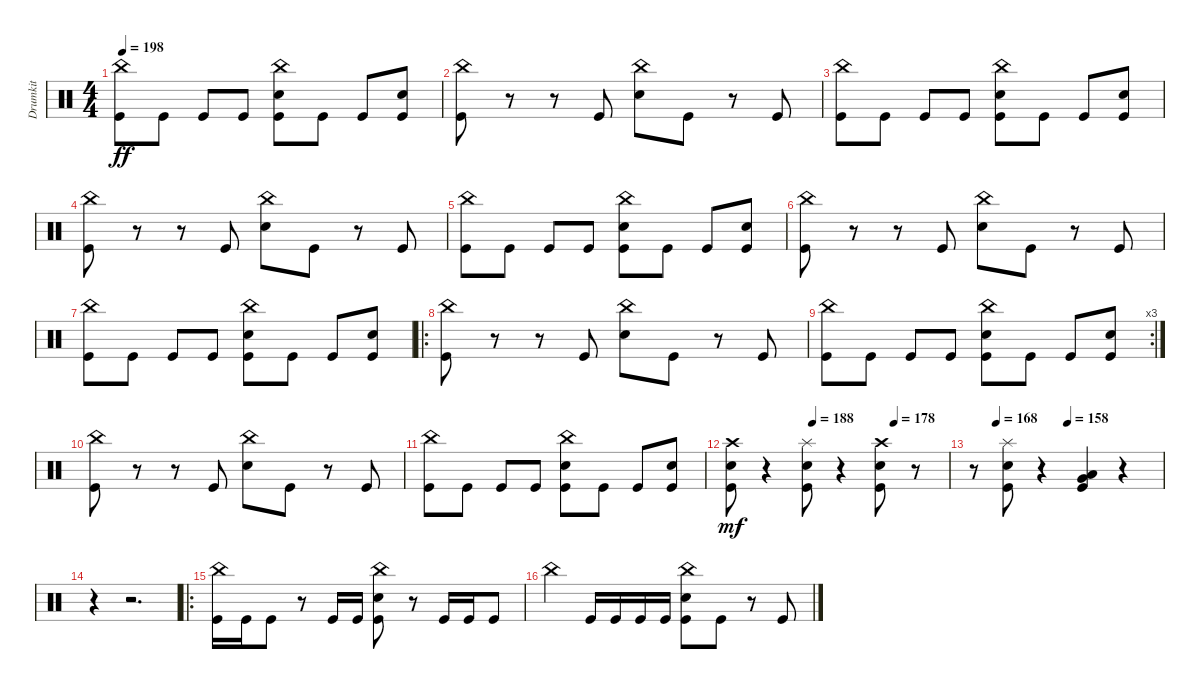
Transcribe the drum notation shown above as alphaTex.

\track ("Drumkit" "Drumkit") {instrument percussion}
\staff {score}
\articulation defaults
\ts (4 4)
\tempo 198
\clef neutral
\ks c
("China (hit)" "Kick (hit)").8{dy ff} "Kick (hit)".8 "Kick (hit)".8 "Kick (hit)".8 ("China (hit)" "Kick (hit)" "Snare (hit) 2").8 "Kick (hit)".8 "Kick (hit)".8 ("Kick (hit)" "Snare (hit) 2").8 |
("Kick (hit)" "China (hit)").8 r.8 r.8 "Kick (hit)".8 ("China (hit)" "Snare (hit) 2").8 "Kick (hit)".8 r.8 "Kick (hit)".8 |
("China (hit)" "Kick (hit)").8 "Kick (hit)".8 "Kick (hit)".8 "Kick (hit)".8 ("China (hit)" "Kick (hit)" "Snare (hit) 2").8 "Kick (hit)".8 "Kick (hit)".8 ("Kick (hit)" "Snare (hit) 2").8 |
("Kick (hit)" "China (hit)").8 r.8 r.8 "Kick (hit)".8 ("China (hit)" "Snare (hit) 2").8 "Kick (hit)".8 r.8 "Kick (hit)".8 |
("China (hit)" "Kick (hit)").8 "Kick (hit)".8 "Kick (hit)".8 "Kick (hit)".8 ("China (hit)" "Kick (hit)" "Snare (hit) 2").8 "Kick (hit)".8 "Kick (hit)".8 ("Kick (hit)" "Snare (hit) 2").8 |
("Kick (hit)" "China (hit)").8 r.8 r.8 "Kick (hit)".8 ("China (hit)" "Snare (hit) 2").8 "Kick (hit)".8 r.8 "Kick (hit)".8 |
("China (hit)" "Kick (hit)").8 "Kick (hit)".8 "Kick (hit)".8 "Kick (hit)".8 ("China (hit)" "Kick (hit)" "Snare (hit) 2").8 "Kick (hit)".8 "Kick (hit)".8 ("Kick (hit)" "Snare (hit) 2").8 |
\ro
("Kick (hit)" "China (hit)").8 r.8 r.8 "Kick (hit)".8 ("China (hit)" "Snare (hit) 2").8 "Kick (hit)".8 r.8 "Kick (hit)".8 |
\rc 3
("China (hit)" "Kick (hit)").8 "Kick (hit)".8 "Kick (hit)".8 "Kick (hit)".8 ("China (hit)" "Kick (hit)" "Snare (hit) 2").8 "Kick (hit)".8 "Kick (hit)".8 ("Kick (hit)" "Snare (hit) 2").8 |
("Kick (hit)" "China (hit)").8 r.8 r.8 "Kick (hit)".8 ("China (hit)" "Snare (hit) 2").8 "Kick (hit)".8 r.8 "Kick (hit)".8 |
("China (hit)" "Kick (hit)").8 "Kick (hit)".8 "Kick (hit)".8 "Kick (hit)".8 ("China (hit)" "Kick (hit)" "Snare (hit) 2").8 "Kick (hit)".8 "Kick (hit)".8 ("Kick (hit)" "Snare (hit) 2").8 |
\tempo (188 0.375)
\tempo (178 0.75)
("Crash high (hit)" "Kick (hit)" "Snare (hit) 2").8{dy mf} r.4 ("Splash (hit)" "Kick (hit)" "Snare (hit) 2").8 r.4 ("Crash high (hit)" "Snare (hit) 2" "Kick (hit)").8 r.8 |
\tempo (168 0.125)
\tempo (158 0.5)
r.8 ("Splash (hit)" "Kick (hit)" "Snare (hit) 2").8 r.4 ("Very Low Tom (hit)" "Low Tom (hit)" "Kick (hit)").4 r.4 |
r.4 r.2{d} |
\ro
("Kick (hit)" "China (hit)").16 "Kick (hit)".16 "Kick (hit)".8 r.8 "Kick (hit)".16 "Kick (hit)".16 ("Kick (hit)" "China (hit)" "Snare (hit) 2").8 r.8 "Kick (hit)".16 "Kick (hit)".16 "Kick (hit)".8 |
"China (hit)".4 "Kick (hit)".16 "Kick (hit)".16 "Kick (hit)".16 "Kick (hit)".16 ("Kick (hit)" "China (hit)" "Snare (hit) 2").8 "Kick (hit)".8 r.8 "Kick (hit)".8
